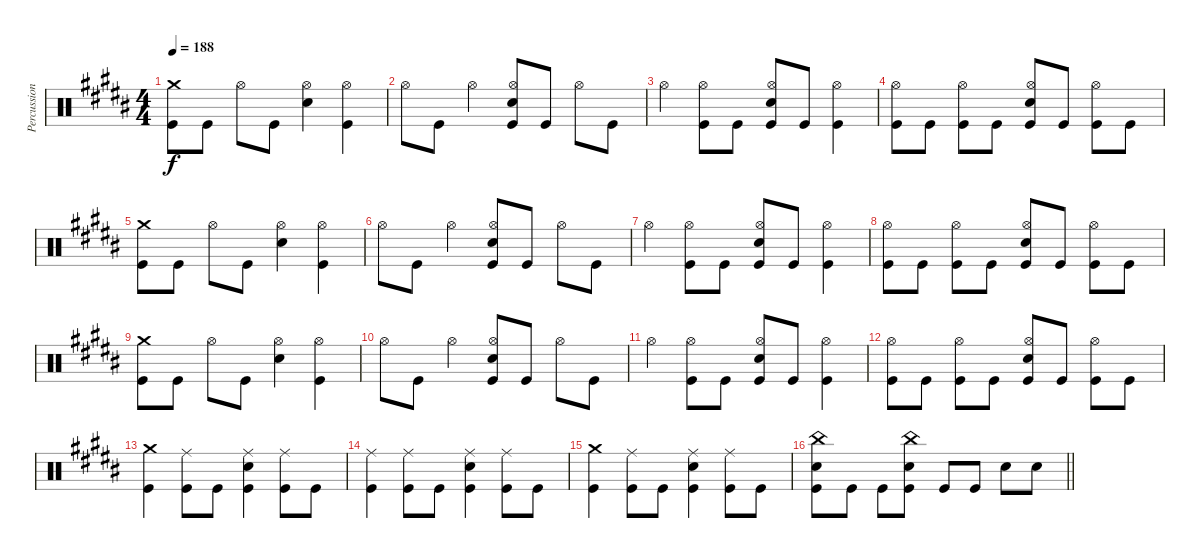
\track ("Percussion" "Percussion") {instrument percussion}
\staff {score}
\articulation defaults
\ts (4 4)
\tempo 188
\clef neutral
\ks b
("Crash medium (hit)" "Kick (hit)").8{dy f} "Kick (hit)".8 "Hi-Hat (open)".8 "Kick (hit)".8 ("Hi-Hat (open)" "Electric Snare (hit)").4 ("Hi-Hat (open)" "Kick (hit)").4 |
"Hi-Hat (open)".8 "Kick (hit)".8 "Hi-Hat (open)".4 ("Hi-Hat (open)" "Electric Snare (hit)" "Kick (hit)").8 "Kick (hit)".8 "Hi-Hat (open)".8 "Kick (hit)".8 |
"Hi-Hat (open)".4 ("Hi-Hat (open)" "Kick (hit)").8 "Kick (hit)".8 ("Hi-Hat (open)" "Electric Snare (hit)" "Kick (hit)").8 "Kick (hit)".8 ("Hi-Hat (open)" "Kick (hit)").4 |
("Hi-Hat (open)" "Kick (hit)").8 "Kick (hit)".8 ("Hi-Hat (open)" "Kick (hit)").8 "Kick (hit)".8 ("Hi-Hat (open)" "Electric Snare (hit)" "Kick (hit)").8 "Kick (hit)".8 ("Hi-Hat (open)" "Kick (hit)").8 "Kick (hit)".8 |
("Crash medium (hit)" "Kick (hit)").8 "Kick (hit)".8 "Hi-Hat (open)".8 "Kick (hit)".8 ("Hi-Hat (open)" "Electric Snare (hit)").4 ("Hi-Hat (open)" "Kick (hit)").4 |
"Hi-Hat (open)".8 "Kick (hit)".8 "Hi-Hat (open)".4 ("Hi-Hat (open)" "Electric Snare (hit)" "Kick (hit)").8 "Kick (hit)".8 "Hi-Hat (open)".8 "Kick (hit)".8 |
"Hi-Hat (open)".4 ("Hi-Hat (open)" "Kick (hit)").8 "Kick (hit)".8 ("Hi-Hat (open)" "Electric Snare (hit)" "Kick (hit)").8 "Kick (hit)".8 ("Hi-Hat (open)" "Kick (hit)").4 |
("Hi-Hat (open)" "Kick (hit)").8 "Kick (hit)".8 ("Hi-Hat (open)" "Kick (hit)").8 "Kick (hit)".8 ("Hi-Hat (open)" "Electric Snare (hit)" "Kick (hit)").8 "Kick (hit)".8 ("Hi-Hat (open)" "Kick (hit)").8 "Kick (hit)".8 |
("Crash medium (hit)" "Kick (hit)").8 "Kick (hit)".8 "Hi-Hat (open)".8 "Kick (hit)".8 ("Hi-Hat (open)" "Electric Snare (hit)").4 ("Hi-Hat (open)" "Kick (hit)").4 |
"Hi-Hat (open)".8 "Kick (hit)".8 "Hi-Hat (open)".4 ("Hi-Hat (open)" "Electric Snare (hit)" "Kick (hit)").8 "Kick (hit)".8 "Hi-Hat (open)".8 "Kick (hit)".8 |
"Hi-Hat (open)".4 ("Hi-Hat (open)" "Kick (hit)").8 "Kick (hit)".8 ("Hi-Hat (open)" "Electric Snare (hit)" "Kick (hit)").8 "Kick (hit)".8 ("Hi-Hat (open)" "Kick (hit)").4 |
("Hi-Hat (open)" "Kick (hit)").8 "Kick (hit)".8 ("Hi-Hat (open)" "Kick (hit)").8 "Kick (hit)".8 ("Hi-Hat (open)" "Electric Snare (hit)" "Kick (hit)").8 "Kick (hit)".8 ("Hi-Hat (open)" "Kick (hit)").8 "Kick (hit)".8 |
("Crash medium (hit)" "Kick (hit)").4 ("Ride (middle)" "Kick (hit)").8 "Kick (hit)".8 ("Ride (middle)" "Electric Snare (hit)" "Kick (hit)").4 ("Ride (middle)" "Kick (hit)").8 "Kick (hit)".8 |
("Ride (middle)" "Kick (hit)").4 ("Ride (middle)" "Kick (hit)").8 "Kick (hit)".8 ("Ride (middle)" "Electric Snare (hit)" "Kick (hit)").4 ("Ride (middle)" "Kick (hit)").8 "Kick (hit)".8 |
("Crash medium (hit)" "Kick (hit)").4 ("Ride (middle)" "Kick (hit)").8 "Kick (hit)".8 ("Ride (middle)" "Electric Snare (hit)" "Kick (hit)").4 ("Ride (middle)" "Kick (hit)").8 "Kick (hit)".8 |
\barLineRight lightlight
("China (hit)" "Electric Snare (hit)" "Kick (hit)").8 "Kick (hit)".8 "Kick (hit)".8 ("China (hit)" "Electric Snare (hit)" "Kick (hit)").8 "Kick (hit)".8 "Kick (hit)".8 "Electric Snare (hit)".8 "Electric Snare (hit)".8
